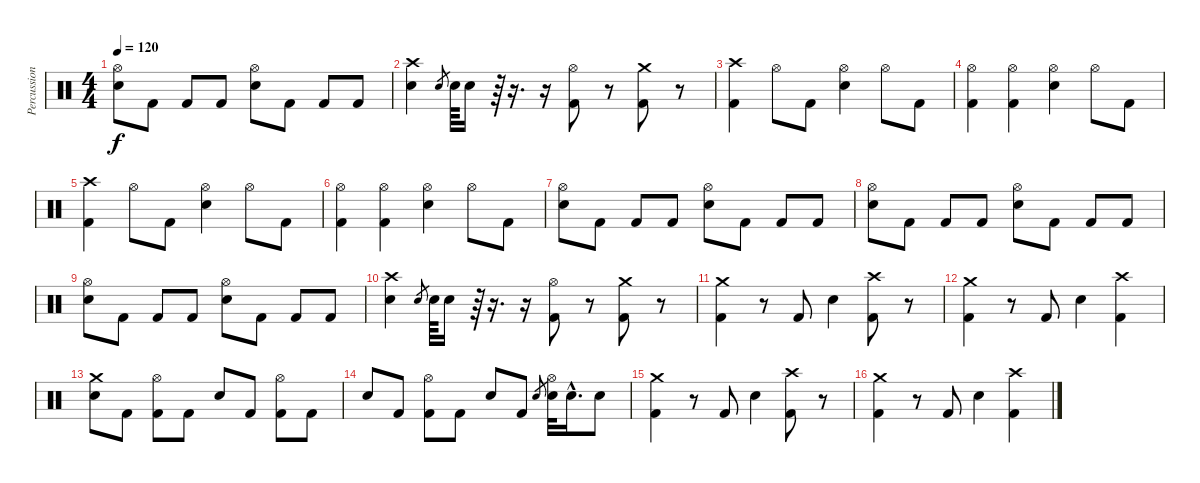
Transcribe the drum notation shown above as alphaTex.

\track ("Percussion" "Percussion") {instrument percussion}
\staff {score}
\articulation defaults
\ts (4 4)
\tempo 120
\clef neutral
\ks c
("Hi-Hat (open)" "Electric Snare (hit)").8{dy f} "Kick (hit) 2".8 "Kick (hit) 2".8 "Kick (hit) 2".8 ("Hi-Hat (open)" "Electric Snare (hit)").8 "Kick (hit) 2".8 "Kick (hit) 2".8 "Kick (hit) 2".8 |
("Crash high (hit)" "Electric Snare (hit)").4 "Electric Snare (hit)".8{gr} "Electric Snare (hit)".64 "Electric Snare (hit)".16 r.64 r.16{d} r.16 ("Hi-Hat (open)" "Kick (hit) 2").8 r.8 ("Crash medium (hit)" "Kick (hit) 2").8 r.8 |
("Crash high (hit)" "Kick (hit) 2").4 "Hi-Hat (open)".8 "Kick (hit) 2".8 ("Hi-Hat (open)" "Electric Snare (hit)").4 "Hi-Hat (open)".8 "Kick (hit) 2".8 |
("Hi-Hat (open)" "Kick (hit) 2").4 ("Hi-Hat (open)" "Kick (hit) 2").4 ("Hi-Hat (open)" "Electric Snare (hit)").4 "Hi-Hat (open)".8 "Kick (hit) 2".8 |
("Crash high (hit)" "Kick (hit) 2").4 "Hi-Hat (open)".8 "Kick (hit) 2".8 ("Hi-Hat (open)" "Electric Snare (hit)").4 "Hi-Hat (open)".8 "Kick (hit) 2".8 |
("Hi-Hat (open)" "Kick (hit) 2").4 ("Hi-Hat (open)" "Kick (hit) 2").4 ("Hi-Hat (open)" "Electric Snare (hit)").4 "Hi-Hat (open)".8 "Kick (hit) 2".8 |
("Hi-Hat (open)" "Electric Snare (hit)").8 "Kick (hit) 2".8 "Kick (hit) 2".8 "Kick (hit) 2".8 ("Hi-Hat (open)" "Electric Snare (hit)").8 "Kick (hit) 2".8 "Kick (hit) 2".8 "Kick (hit) 2".8 |
("Hi-Hat (open)" "Electric Snare (hit)").8 "Kick (hit) 2".8 "Kick (hit) 2".8 "Kick (hit) 2".8 ("Hi-Hat (open)" "Electric Snare (hit)").8 "Kick (hit) 2".8 "Kick (hit) 2".8 "Kick (hit) 2".8 |
("Hi-Hat (open)" "Electric Snare (hit)").8 "Kick (hit) 2".8 "Kick (hit) 2".8 "Kick (hit) 2".8 ("Hi-Hat (open)" "Electric Snare (hit)").8 "Kick (hit) 2".8 "Kick (hit) 2".8 "Kick (hit) 2".8 |
("Crash high (hit)" "Electric Snare (hit)").4 "Electric Snare (hit)".8{gr} "Electric Snare (hit)".64 "Electric Snare (hit)".16 r.64 r.16{d} r.16 ("Hi-Hat (open)" "Kick (hit) 2").8 r.8 ("Crash medium (hit)" "Kick (hit) 2").8 r.8 |
("Crash medium (hit)" "Kick (hit) 2").4 r.8 "Kick (hit) 2".8 "Electric Snare (hit)".4 ("Crash high (hit)" "Kick (hit) 2").8 r.8 |
("Crash medium (hit)" "Kick (hit) 2").4 r.8 "Kick (hit) 2".8 "Electric Snare (hit)".4 ("Crash high (hit)" "Kick (hit) 2").4 |
("Crash medium (hit)" "Electric Snare (hit)").8 "Kick (hit) 2".8 ("Hi-Hat (open)" "Kick (hit) 2").8 "Kick (hit) 2".8 "Electric Snare (hit)".8 "Kick (hit) 2".8 ("Hi-Hat (open)" "Kick (hit) 2").8 "Kick (hit) 2".8 |
"Electric Snare (hit)".8 "Kick (hit) 2".8 ("Hi-Hat (open)" "Kick (hit) 2").8 "Kick (hit) 2".8 "Electric Snare (hit)".8 "Kick (hit) 2".8 "Electric Snare (hit)".8{gr} ("Hi-Hat (open)" "Electric Snare (hit)").32 "Electric Snare (hit)"{hac}.16{d} "Electric Snare (hit)".8 |
("Crash medium (hit)" "Kick (hit) 2").4 r.8 "Kick (hit) 2".8 "Electric Snare (hit)".4 ("Crash high (hit)" "Kick (hit) 2").8 r.8 |
("Crash medium (hit)" "Kick (hit) 2").4 r.8 "Kick (hit) 2".8 "Electric Snare (hit)".4 ("Crash high (hit)" "Kick (hit) 2").4
